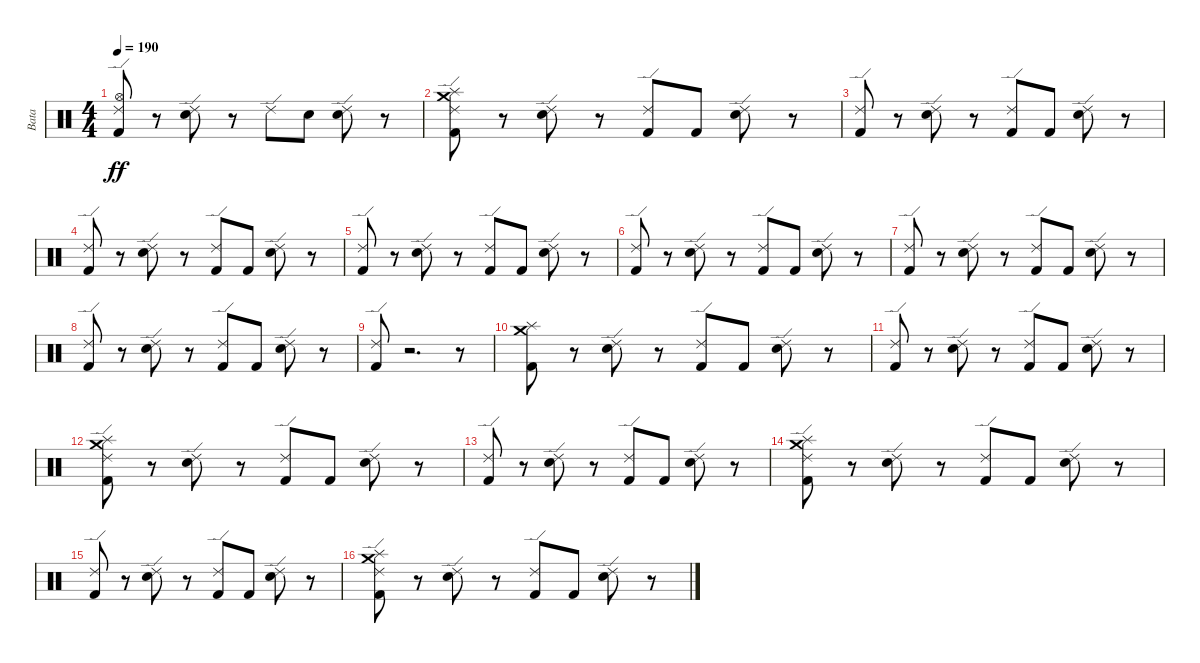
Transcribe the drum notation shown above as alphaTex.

\track ("Bata" "Bata") {instrument percussion}
\staff {score}
\articulation defaults
\ts (4 4)
\tempo 190
\clef neutral
\ks c
("Kick (hit) 2" "Hi-Hat (open)" "Ride (edge) 2").8{dy ff} r.8 ("Snare (hit) 2" "Ride (edge) 2").8 r.8 "Ride (edge) 2".8 "Snare (hit) 2".8 ("Ride (edge) 2" "Snare (hit) 2").8 r.8 |
("Splash (hit)" "Crash medium (hit)" "Ride (edge) 2" "Kick (hit) 2").8 r.8 ("Ride (edge) 2" "Snare (hit) 2").8 r.8 ("Kick (hit) 2" "Ride (edge) 2").8 "Kick (hit) 2".8 ("Ride (edge) 2" "Snare (hit) 2").8 r.8 |
("Ride (edge) 2" "Kick (hit) 2").8 r.8 ("Snare (hit) 2" "Ride (edge) 2").8 r.8 ("Kick (hit) 2" "Ride (edge) 2").8 "Kick (hit) 2".8 ("Ride (edge) 2" "Snare (hit) 2").8 r.8 |
("Kick (hit) 2" "Ride (edge) 2").8 r.8 ("Snare (hit) 2" "Ride (edge) 2").8 r.8 ("Ride (edge) 2" "Kick (hit) 2").8 "Kick (hit) 2".8 ("Ride (edge) 2" "Snare (hit) 2").8 r.8 |
("Kick (hit) 2" "Ride (edge) 2").8 r.8 ("Ride (edge) 2" "Snare (hit) 2").8 r.8 ("Ride (edge) 2" "Kick (hit) 2").8 "Kick (hit) 2".8 ("Snare (hit) 2" "Ride (edge) 2").8 r.8 |
("Kick (hit) 2" "Ride (edge) 2").8 r.8 ("Ride (edge) 2" "Snare (hit) 2").8 r.8 ("Ride (edge) 2" "Kick (hit) 2").8 "Kick (hit) 2".8 ("Snare (hit) 2" "Ride (edge) 2").8 r.8 |
("Ride (edge) 2" "Kick (hit) 2").8 r.8 ("Ride (edge) 2" "Snare (hit) 2").8 r.8 ("Kick (hit) 2" "Ride (edge) 2").8 "Kick (hit) 2".8 ("Snare (hit) 2" "Ride (edge) 2").8 r.8 |
("Ride (edge) 2" "Kick (hit) 2").8 r.8 ("Snare (hit) 2" "Ride (edge) 2").8 r.8 ("Kick (hit) 2" "Ride (edge) 2").8 "Kick (hit) 2".8 ("Ride (edge) 2" "Snare (hit) 2").8 r.8 |
("Ride (edge) 2" "Kick (hit) 2").8 r.2{d} r.8 |
("Kick (hit) 2" "Splash (hit)" "Crash medium (hit)").8 r.8 ("Snare (hit) 2" "Ride (edge) 2").8 r.8 ("Ride (edge) 2" "Kick (hit) 2").8 "Kick (hit) 2".8 ("Ride (edge) 2" "Snare (hit) 2").8 r.8 |
("Kick (hit) 2" "Ride (edge) 2").8 r.8 ("Ride (edge) 2" "Snare (hit) 2").8 r.8 ("Ride (edge) 2" "Kick (hit) 2").8 "Kick (hit) 2".8 ("Snare (hit) 2" "Ride (edge) 2").8 r.8 |
("Kick (hit) 2" "Ride (edge) 2" "Splash (hit)" "Crash medium (hit)").8 r.8 ("Ride (edge) 2" "Snare (hit) 2").8 r.8 ("Kick (hit) 2" "Ride (edge) 2").8 "Kick (hit) 2".8 ("Snare (hit) 2" "Ride (edge) 2").8 r.8 |
("Ride (edge) 2" "Kick (hit) 2").8 r.8 ("Ride (edge) 2" "Snare (hit) 2").8 r.8 ("Kick (hit) 2" "Ride (edge) 2").8 "Kick (hit) 2".8 ("Ride (edge) 2" "Snare (hit) 2").8 r.8 |
("Splash (hit)" "Crash medium (hit)" "Ride (edge) 2" "Kick (hit) 2").8 r.8 ("Snare (hit) 2" "Ride (edge) 2").8 r.8 ("Kick (hit) 2" "Ride (edge) 2").8 "Kick (hit) 2".8 ("Ride (edge) 2" "Snare (hit) 2").8 r.8 |
("Kick (hit) 2" "Ride (edge) 2").8 r.8 ("Snare (hit) 2" "Ride (edge) 2").8 r.8 ("Ride (edge) 2" "Kick (hit) 2").8 "Kick (hit) 2".8 ("Ride (edge) 2" "Snare (hit) 2").8 r.8 |
("Kick (hit) 2" "Ride (edge) 2" "Splash (hit)" "Crash medium (hit)").8 r.8 ("Snare (hit) 2" "Ride (edge) 2").8 r.8 ("Ride (edge) 2" "Kick (hit) 2").8 "Kick (hit) 2".8 ("Snare (hit) 2" "Ride (edge) 2").8 r.8
